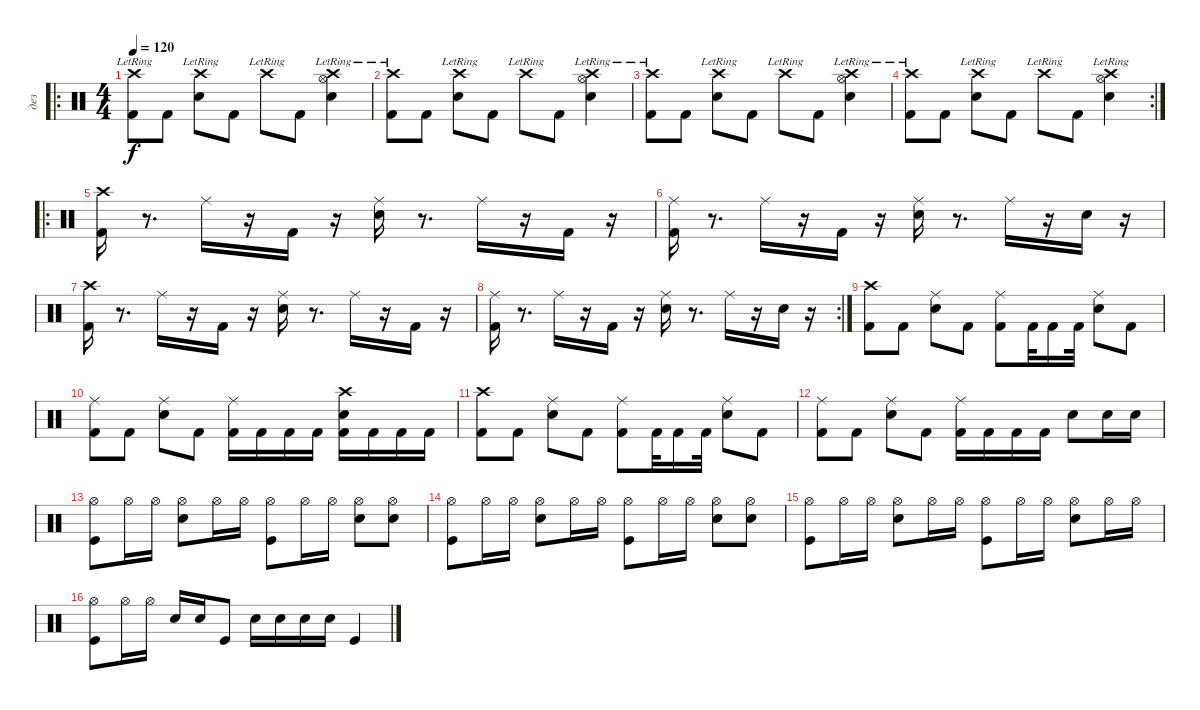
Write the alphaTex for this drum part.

\track ("дез" "дез") {instrument percussion}
\staff {score}
\articulation defaults
\ro
\ts (4 4)
\tempo 120
\clef neutral
\ks c
("Crash high (hit)"{lr} "Kick (hit) 2").8{dy f} "Kick (hit) 2".8 ("Crash high (hit)"{lr} "Snare (hit) 2").8 "Kick (hit) 2".8 "Crash high (hit)"{lr}.8 "Kick (hit) 2".8 ("Crash high (hit)"{lr} "Hi-Hat (open)"{lr} "Snare (hit) 2").4 |
("Crash high (hit)"{lr} "Kick (hit) 2").8 "Kick (hit) 2".8 ("Crash high (hit)"{lr} "Snare (hit) 2").8 "Kick (hit) 2".8 "Crash high (hit)"{lr}.8 "Kick (hit) 2".8 ("Crash high (hit)"{lr} "Hi-Hat (open)"{lr} "Snare (hit) 2").4 |
("Crash high (hit)"{lr} "Kick (hit) 2").8 "Kick (hit) 2".8 ("Crash high (hit)"{lr} "Snare (hit) 2").8 "Kick (hit) 2".8 "Crash high (hit)"{lr}.8 "Kick (hit) 2".8 ("Crash high (hit)"{lr} "Hi-Hat (open)"{lr} "Snare (hit) 2").4 |
\rc 2
("Crash high (hit)"{lr} "Kick (hit) 2").8 "Kick (hit) 2".8 ("Crash high (hit)"{lr} "Snare (hit) 2").8 "Kick (hit) 2".8 "Crash high (hit)"{lr}.8 "Kick (hit) 2".8 ("Crash high (hit)"{lr} "Hi-Hat (open)"{lr} "Snare (hit) 2").4 |
\ro
("Kick (hit) 2" "Crash high (hit)").16 r.8{d} "Ride (middle)".16 r.16 "Kick (hit) 2".16 r.16 ("Snare (hit) 2" "Ride (middle)").16 r.8{d} "Ride (middle)".16 r.16 "Kick (hit) 2".16 r.16 |
("Kick (hit) 2" "Ride (middle)").16 r.8{d} "Ride (middle)".16 r.16 "Kick (hit) 2".16 r.16 ("Snare (hit) 2" "Ride (middle)").16 r.8{d} "Ride (middle)".16 r.16 "Snare (hit) 2".16 r.16 |
("Kick (hit) 2" "Crash high (hit)").16 r.8{d} "Ride (middle)".16 r.16 "Kick (hit) 2".16 r.16 ("Snare (hit) 2" "Ride (middle)").16 r.8{d} "Ride (middle)".16 r.16 "Kick (hit) 2".16 r.16 |
\rc 2
("Kick (hit) 2" "Ride (middle)").16 r.8{d} "Ride (middle)".16 r.16 "Kick (hit) 2".16 r.16 ("Snare (hit) 2" "Ride (middle)").16 r.8{d} "Ride (middle)".16 r.16 "Snare (hit) 2".16 r.16 |
("Crash high (hit)" "Kick (hit) 2").8 "Kick (hit) 2".8 ("Ride (middle)" "Snare (hit) 2").8 "Kick (hit) 2".8 ("Ride (middle)" "Kick (hit) 2").8 "Kick (hit) 2".32 "Kick (hit) 2".16 "Kick (hit) 2".32 ("Ride (middle)" "Snare (hit) 2").8 "Kick (hit) 2".8 |
("Ride (middle)" "Kick (hit) 2").8 "Kick (hit) 2".8 ("Ride (middle)" "Snare (hit) 2").8 "Kick (hit) 2".8 ("Ride (middle)" "Kick (hit) 2").16 "Kick (hit) 2".16 "Kick (hit) 2".16 "Kick (hit) 2".16 ("Crash high (hit)" "Snare (hit) 2" "Kick (hit) 2").16 "Kick (hit) 2".16 "Kick (hit) 2".16 "Kick (hit) 2".16 |
("Crash high (hit)" "Kick (hit) 2").8 "Kick (hit) 2".8 ("Ride (middle)" "Snare (hit) 2").8 "Kick (hit) 2".8 ("Ride (middle)" "Kick (hit) 2").8 "Kick (hit) 2".32 "Kick (hit) 2".16 "Kick (hit) 2".32 ("Ride (middle)" "Snare (hit) 2").8 "Kick (hit) 2".8 |
("Ride (middle)" "Kick (hit) 2").8 "Kick (hit) 2".8 ("Ride (middle)" "Snare (hit) 2").8 "Kick (hit) 2".8 ("Ride (middle)" "Kick (hit) 2").16 "Kick (hit) 2".16 "Kick (hit) 2".16 "Kick (hit) 2".16 "Snare (hit) 2".8 "Snare (hit) 2".16 "Snare (hit) 2".16 |
("Hi-Hat (open)" "Kick (hit)").8 "Hi-Hat (open)".16 "Hi-Hat (open)".16 ("Hi-Hat (open)" "Snare (hit) 2").8 "Hi-Hat (open)".16 "Hi-Hat (open)".16 ("Hi-Hat (open)" "Kick (hit)").8 "Hi-Hat (open)".16 "Hi-Hat (open)".16 ("Snare (hit) 2" "Hi-Hat (open)").8 ("Snare (hit) 2" "Hi-Hat (open)").8 |
("Hi-Hat (open)" "Kick (hit)").8 "Hi-Hat (open)".16 "Hi-Hat (open)".16 ("Hi-Hat (open)" "Snare (hit) 2").8 "Hi-Hat (open)".16 "Hi-Hat (open)".16 ("Hi-Hat (open)" "Kick (hit)").8 "Hi-Hat (open)".16 "Hi-Hat (open)".16 ("Snare (hit) 2" "Hi-Hat (open)").8 ("Snare (hit) 2" "Hi-Hat (open)").8 |
("Hi-Hat (open)" "Kick (hit)").8 "Hi-Hat (open)".16 "Hi-Hat (open)".16 ("Hi-Hat (open)" "Snare (hit) 2").8 "Hi-Hat (open)".16 "Hi-Hat (open)".16 ("Hi-Hat (open)" "Kick (hit)").8 "Hi-Hat (open)".16 "Hi-Hat (open)".16 ("Snare (hit) 2" "Hi-Hat (open)").8 "Hi-Hat (open)".16 "Hi-Hat (open)".16 |
("Hi-Hat (open)" "Kick (hit)").8 "Hi-Hat (open)".16 "Hi-Hat (open)".16 "Snare (hit) 2".16 "Snare (hit) 2".16 "Kick (hit)".8 "Snare (hit) 2".16 "Snare (hit) 2".16 "Snare (hit) 2".16 "Snare (hit) 2".16 "Kick (hit)".4
